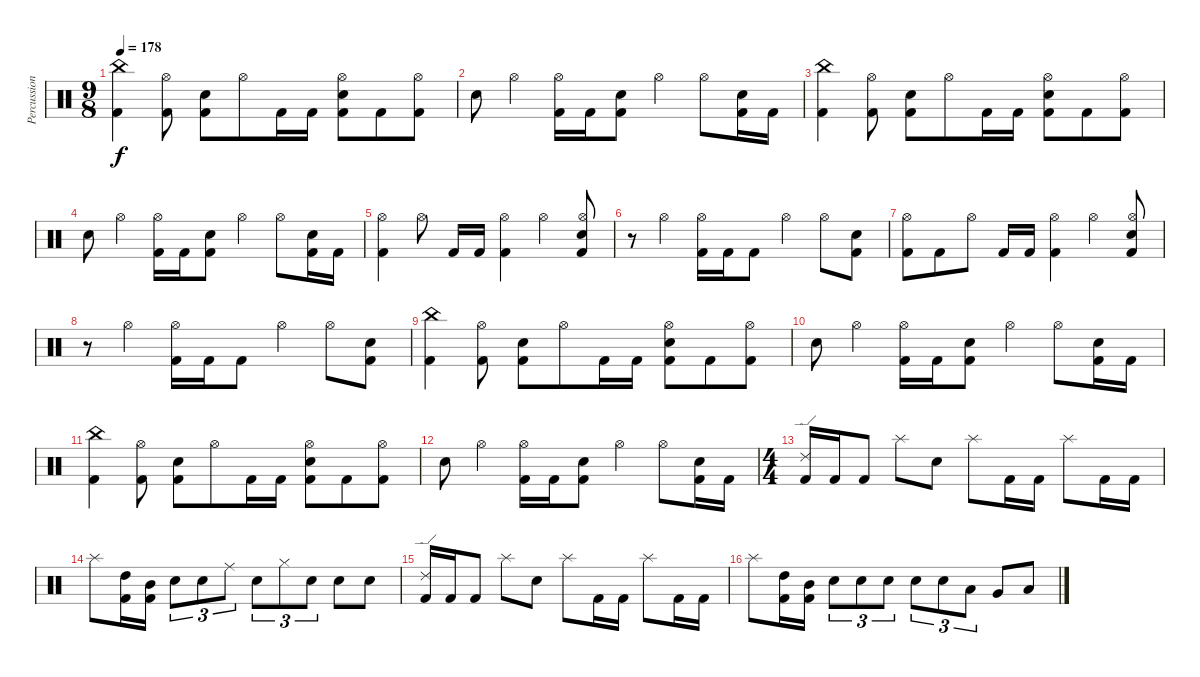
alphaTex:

\track ("Percussion" "Percussion") {instrument percussion}
\staff {score}
\articulation defaults
\ts (9 8)
\tempo 178
\clef neutral
\ks c
("China (hit)" "Kick (hit) 2").4{dy f} ("Hi-Hat (open)" "Kick (hit) 2").8 ("Electric Snare (hit)" "Kick (hit) 2").8 "Hi-Hat (open)".8 "Kick (hit) 2".16 "Kick (hit) 2".16 ("Hi-Hat (open)" "Electric Snare (hit)" "Kick (hit) 2").8 "Kick (hit) 2".8 ("Hi-Hat (open)" "Kick (hit) 2").8 |
"Electric Snare (hit)".8 "Hi-Hat (open)".4 ("Hi-Hat (open)" "Kick (hit) 2").16 "Kick (hit) 2".16 ("Electric Snare (hit)" "Kick (hit) 2").8 "Hi-Hat (open)".4 "Hi-Hat (open)".8 ("Electric Snare (hit)" "Kick (hit) 2").16 "Kick (hit) 2".16 |
("China (hit)" "Kick (hit) 2").4 ("Hi-Hat (open)" "Kick (hit) 2").8 ("Electric Snare (hit)" "Kick (hit) 2").8 "Hi-Hat (open)".8 "Kick (hit) 2".16 "Kick (hit) 2".16 ("Hi-Hat (open)" "Electric Snare (hit)" "Kick (hit) 2").8 "Kick (hit) 2".8 ("Hi-Hat (open)" "Kick (hit) 2").8 |
"Electric Snare (hit)".8 "Hi-Hat (open)".4 ("Hi-Hat (open)" "Kick (hit) 2").16 "Kick (hit) 2".16 ("Electric Snare (hit)" "Kick (hit) 2").8 "Hi-Hat (open)".4 "Hi-Hat (open)".8 ("Electric Snare (hit)" "Kick (hit) 2").16 "Kick (hit) 2".16 |
("Hi-Hat (open)" "Kick (hit) 2").4 "Hi-Hat (open)".8 "Kick (hit) 2".16 "Kick (hit) 2".16 ("Hi-Hat (open)" "Kick (hit) 2").4 "Hi-Hat (open)".4 ("Hi-Hat (open)" "Electric Snare (hit)" "Kick (hit) 2").8 |
r.8 "Hi-Hat (open)".4 ("Hi-Hat (open)" "Kick (hit) 2").16 "Kick (hit) 2".16 "Kick (hit) 2".8 "Hi-Hat (open)".4 "Hi-Hat (open)".8 ("Electric Snare (hit)" "Kick (hit) 2").8 |
("Hi-Hat (open)" "Kick (hit) 2").8 "Kick (hit) 2".8 "Hi-Hat (open)".8 "Kick (hit) 2".16 "Kick (hit) 2".16 ("Hi-Hat (open)" "Kick (hit) 2").4 "Hi-Hat (open)".4 ("Hi-Hat (open)" "Electric Snare (hit)" "Kick (hit) 2").8 |
r.8 "Hi-Hat (open)".4 ("Hi-Hat (open)" "Kick (hit) 2").16 "Kick (hit) 2".16 "Kick (hit) 2".8 "Hi-Hat (open)".4 "Hi-Hat (open)".8 ("Electric Snare (hit)" "Kick (hit) 2").8 |
("China (hit)" "Kick (hit) 2").4 ("Hi-Hat (open)" "Kick (hit) 2").8 ("Electric Snare (hit)" "Kick (hit) 2").8 "Hi-Hat (open)".8 "Kick (hit) 2".16 "Kick (hit) 2".16 ("Hi-Hat (open)" "Electric Snare (hit)" "Kick (hit) 2").8 "Kick (hit) 2".8 ("Hi-Hat (open)" "Kick (hit) 2").8 |
"Electric Snare (hit)".8 "Hi-Hat (open)".4 ("Hi-Hat (open)" "Kick (hit) 2").16 "Kick (hit) 2".16 ("Electric Snare (hit)" "Kick (hit) 2").8 "Hi-Hat (open)".4 "Hi-Hat (open)".8 ("Electric Snare (hit)" "Kick (hit) 2").16 "Kick (hit) 2".16 |
("China (hit)" "Kick (hit) 2").4 ("Hi-Hat (open)" "Kick (hit) 2").8 ("Electric Snare (hit)" "Kick (hit) 2").8 "Hi-Hat (open)".8 "Kick (hit) 2".16 "Kick (hit) 2".16 ("Hi-Hat (open)" "Electric Snare (hit)" "Kick (hit) 2").8 "Kick (hit) 2".8 ("Hi-Hat (open)" "Kick (hit) 2").8 |
"Electric Snare (hit)".8 "Hi-Hat (open)".4 ("Hi-Hat (open)" "Kick (hit) 2").16 "Kick (hit) 2".16 ("Electric Snare (hit)" "Kick (hit) 2").8 "Hi-Hat (open)".4 "Hi-Hat (open)".8 ("Electric Snare (hit)" "Kick (hit) 2").16 "Kick (hit) 2".16 |
\ts (4 4)
("Ride (edge) 2" "Kick (hit) 2").16 "Kick (hit) 2".16 "Kick (hit) 2".8 "Splash (hit)".8 "Electric Snare (hit)".8 "Splash (hit)".8 "Kick (hit) 2".16 "Kick (hit) 2".16 "Splash (hit)".8 "Kick (hit) 2".16 "Kick (hit) 2".16 |
"Splash (hit)".8 ("High Tom (hit)" "Kick (hit) 2").16 ("Mid Tom (hit)" "Kick (hit) 2").16 "Electric Snare (hit)".8{tu (3 2)} "Electric Snare (hit)".8{tu (3 2)} "Ride (middle)".8{tu (3 2)} "Electric Snare (hit)".8{tu (3 2)} "Hi-Hat (closed)".8{tu (3 2)} "Electric Snare (hit)".8{tu (3 2)} "Electric Snare (hit)".8 "Electric Snare (hit)".8 |
("Ride (edge) 2" "Kick (hit) 2").16 "Kick (hit) 2".16 "Kick (hit) 2".8 "Splash (hit)".8 "Electric Snare (hit)".8 "Splash (hit)".8 "Kick (hit) 2".16 "Kick (hit) 2".16 "Splash (hit)".8 "Kick (hit) 2".16 "Kick (hit) 2".16 |
"Splash (hit)".8 ("High Tom (hit)" "Kick (hit) 2").16 ("Mid Tom (hit)" "Kick (hit) 2").16 "Electric Snare (hit)".8{tu (3 2)} "Electric Snare (hit)".8{tu (3 2)} "Electric Snare (hit)".8{tu (3 2)} "Electric Snare (hit)".8{tu (3 2)} "Electric Snare (hit)".8{tu (3 2)} "Low Tom (hit)".8{tu (3 2)} "Very Low Tom (hit)".8 "Low Floor Tom (hit)".8
